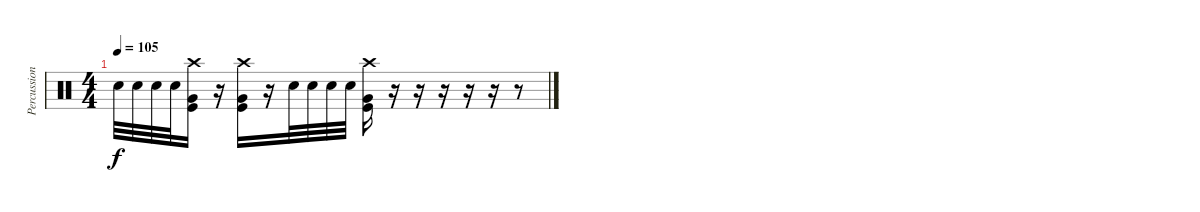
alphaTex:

\track ("Percussion" "Percussion") {instrument percussion}
\staff {score}
\articulation defaults
\ts (4 4)
\tempo 105
\clef neutral
\ks c "Snare (hit) 2".32{dy f} "Snare (hit) 2".32 "Snare (hit) 2".32 "Snare (hit) 2".32
("Crash high (hit)" "Very Low Tom (hit)" "Kick (hit)").16 r.16 ("Crash high (hit)" "Very Low Tom (hit)" "Kick (hit)").16 r.16 "Snare (hit) 2".32 "Snare (hit) 2".32 "Snare (hit) 2".32 "Snare (hit) 2".32 ("Crash high (hit)" "Very Low Tom (hit)" "Kick (hit)").16 r.16 r.16 r.16 r.16 r.16 r.8
